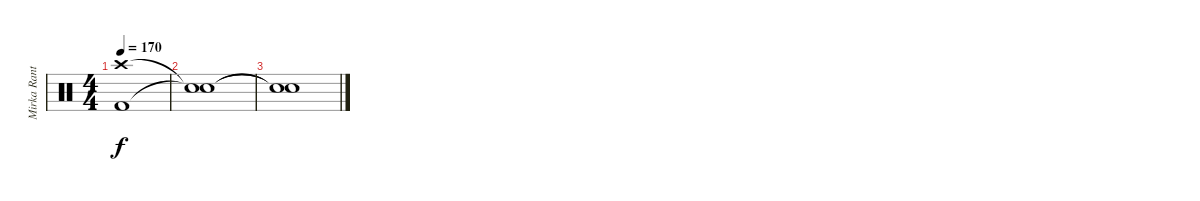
\track ("Mirka Rantanen" "Mirka Rant") {instrument percussion}
\staff {score}
\articulation defaults
\ts (4 4)
\tempo 170
\clef neutral
\ks c
("Crash high (hit)"{t} "Kick (hit) 2"{t}).1{dy f} |
("Snare (hit)"{t} "Snare (hit)"{t}).1 |
("Snare (hit)"{t} "Snare (hit)"{t}).1
